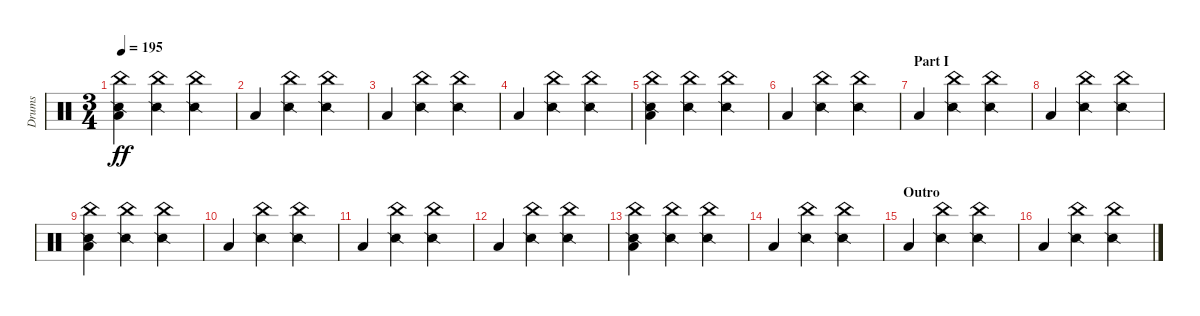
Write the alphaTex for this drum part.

\track ("Drums" "Drums") {instrument percussion}
\staff {score}
\articulation defaults
\ts (3 4)
\tempo 195
\clef neutral
\ks c
("China (hit)" "Low Floor Tom (hit)" "Snare (side stick) 2").4{dy ff} ("China (hit)" "Snare (side stick) 2").4 ("China (hit)" "Snare (side stick) 2").4 |
"Low Floor Tom (hit)".4 ("China (hit)" "Snare (side stick) 2").4 ("China (hit)" "Snare (side stick) 2").4 |
"Low Floor Tom (hit)".4 ("China (hit)" "Snare (side stick) 2").4 ("China (hit)" "Snare (side stick) 2").4 |
"Low Floor Tom (hit)".4 ("China (hit)" "Snare (side stick) 2").4 ("China (hit)" "Snare (side stick) 2").4 |
("China (hit)" "Low Floor Tom (hit)" "Snare (side stick) 2").4 ("China (hit)" "Snare (side stick) 2").4 ("China (hit)" "Snare (side stick) 2").4 |
"Low Floor Tom (hit)".4 ("China (hit)" "Snare (side stick) 2").4 ("China (hit)" "Snare (side stick) 2").4 |
\section ("" "Part I")
"Low Floor Tom (hit)".4 ("China (hit)" "Snare (side stick) 2").4 ("China (hit)" "Snare (side stick) 2").4 |
"Low Floor Tom (hit)".4 ("China (hit)" "Snare (side stick) 2").4 ("China (hit)" "Snare (side stick) 2").4 |
("China (hit)" "Low Floor Tom (hit)" "Snare (side stick) 2").4 ("China (hit)" "Snare (side stick) 2").4 ("China (hit)" "Snare (side stick) 2").4 |
"Low Floor Tom (hit)".4 ("China (hit)" "Snare (side stick) 2").4 ("China (hit)" "Snare (side stick) 2").4 |
"Low Floor Tom (hit)".4 ("China (hit)" "Snare (side stick) 2").4 ("China (hit)" "Snare (side stick) 2").4 |
"Low Floor Tom (hit)".4 ("China (hit)" "Snare (side stick) 2").4 ("China (hit)" "Snare (side stick) 2").4 |
("China (hit)" "Low Floor Tom (hit)" "Snare (side stick) 2").4 ("China (hit)" "Snare (side stick) 2").4 ("China (hit)" "Snare (side stick) 2").4 |
"Low Floor Tom (hit)".4 ("China (hit)" "Snare (side stick) 2").4 ("China (hit)" "Snare (side stick) 2").4 |
\section ("" "Outro")
"Low Floor Tom (hit)".4 ("China (hit)" "Snare (side stick) 2").4 ("China (hit)" "Snare (side stick) 2").4 |
"Low Floor Tom (hit)".4 ("China (hit)" "Snare (side stick) 2").4 ("China (hit)" "Snare (side stick) 2").4
